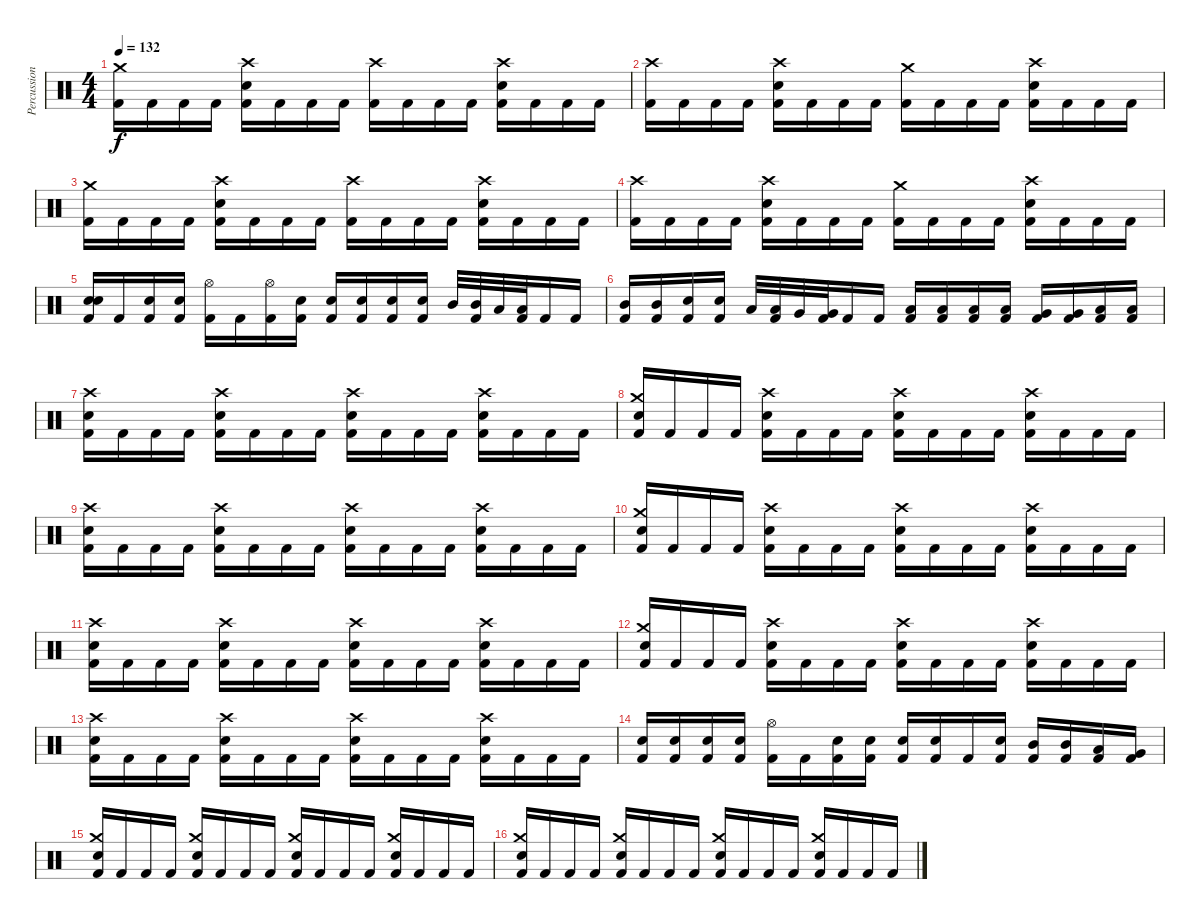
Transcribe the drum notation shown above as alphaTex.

\track ("Percussion" "Percussion") {instrument percussion}
\staff {score}
\articulation defaults
\ts (4 4)
\tempo 132
\clef neutral
\ks c
("Kick (hit) 2" "Crash medium (hit)").16{dy f} "Kick (hit) 2".16 "Kick (hit) 2".16 "Kick (hit) 2".16 ("Snare (hit) 2" "Kick (hit) 2" "Crash high (hit)").16 "Kick (hit) 2".16 "Kick (hit) 2".16 "Kick (hit) 2".16 ("Kick (hit) 2" "Crash high (hit)").16 "Kick (hit) 2".16 "Kick (hit) 2".16 "Kick (hit) 2".16 ("Snare (hit) 2" "Kick (hit) 2" "Crash high (hit)").16 "Kick (hit) 2".16 "Kick (hit) 2".16 "Kick (hit) 2".16 |
("Kick (hit) 2" "Crash high (hit)").16 "Kick (hit) 2".16 "Kick (hit) 2".16 "Kick (hit) 2".16 ("Snare (hit) 2" "Kick (hit) 2" "Crash high (hit)").16 "Kick (hit) 2".16 "Kick (hit) 2".16 "Kick (hit) 2".16 ("Kick (hit) 2" "Crash medium (hit)").16 "Kick (hit) 2".16 "Kick (hit) 2".16 "Kick (hit) 2".16 ("Snare (hit) 2" "Kick (hit) 2" "Crash high (hit)").16 "Kick (hit) 2".16 "Kick (hit) 2".16 "Kick (hit) 2".16 |
("Kick (hit) 2" "Crash medium (hit)").16 "Kick (hit) 2".16 "Kick (hit) 2".16 "Kick (hit) 2".16 ("Snare (hit) 2" "Kick (hit) 2" "Crash high (hit)").16 "Kick (hit) 2".16 "Kick (hit) 2".16 "Kick (hit) 2".16 ("Kick (hit) 2" "Crash high (hit)").16 "Kick (hit) 2".16 "Kick (hit) 2".16 "Kick (hit) 2".16 ("Snare (hit) 2" "Kick (hit) 2" "Crash high (hit)").16 "Kick (hit) 2".16 "Kick (hit) 2".16 "Kick (hit) 2".16 |
("Kick (hit) 2" "Crash high (hit)").16 "Kick (hit) 2".16 "Kick (hit) 2".16 "Kick (hit) 2".16 ("Snare (hit) 2" "Kick (hit) 2" "Crash high (hit)").16 "Kick (hit) 2".16 "Kick (hit) 2".16 "Kick (hit) 2".16 ("Kick (hit) 2" "Crash medium (hit)").16 "Kick (hit) 2".16 "Kick (hit) 2".16 "Kick (hit) 2".16 ("Snare (hit) 2" "Kick (hit) 2" "Crash high (hit)").16 "Kick (hit) 2".16 "Kick (hit) 2".16 "Kick (hit) 2".16 |
("Snare (hit) 2" "Snare (hit) 2" "Kick (hit) 2").16 "Kick (hit) 2".16 ("Snare (hit) 2" "Kick (hit) 2").16 ("Snare (hit) 2" "Kick (hit) 2").16 ("Hi-Hat (open)" "Kick (hit) 2").16 "Kick (hit) 2".16 ("Hi-Hat (open)" "Kick (hit) 2").16 ("Snare (hit) 2" "Kick (hit) 2").16 ("Snare (hit) 2" "Kick (hit) 2").16 ("Snare (hit) 2" "Kick (hit) 2").16 ("Snare (hit) 2" "Kick (hit) 2").16 ("Snare (hit) 2" "Kick (hit) 2").16 "Mid Tom (hit)".32 ("Kick (hit) 2" "Mid Tom (hit)").32 "Low Tom (hit)".32 ("Kick (hit) 2" "Low Tom (hit)").32 "Kick (hit) 2".16 "Kick (hit) 2".16 |
("Mid Tom (hit)" "Kick (hit) 2").16 ("Mid Tom (hit)" "Kick (hit) 2").16 ("Snare (hit) 2" "Kick (hit) 2").16 ("Snare (hit) 2" "Kick (hit) 2").16 "Low Tom (hit)".32 ("Low Tom (hit)" "Kick (hit) 2").32 "Very Low Tom (hit)".32 ("Very Low Tom (hit)" "Kick (hit) 2").32 "Kick (hit) 2".16 "Kick (hit) 2".16 ("Low Tom (hit)" "Kick (hit) 2").16 ("Low Tom (hit)" "Kick (hit) 2").16 ("Low Tom (hit)" "Kick (hit) 2").16 ("Low Tom (hit)" "Kick (hit) 2").16 ("Very Low Tom (hit)" "Kick (hit) 2").16 ("Very Low Tom (hit)" "Kick (hit) 2").16 ("Low Floor Tom (hit)" "Kick (hit) 2").16 ("Low Floor Tom (hit)" "Kick (hit) 2").16 |
("Snare (hit) 2" "Kick (hit) 2" "Crash high (hit)").16 "Kick (hit) 2".16 "Kick (hit) 2".16 "Kick (hit) 2".16 ("Snare (hit) 2" "Kick (hit) 2" "Crash high (hit)").16 "Kick (hit) 2".16 "Kick (hit) 2".16 "Kick (hit) 2".16 ("Snare (hit) 2" "Kick (hit) 2" "Crash high (hit)").16 "Kick (hit) 2".16 "Kick (hit) 2".16 "Kick (hit) 2".16 ("Snare (hit) 2" "Kick (hit) 2" "Crash high (hit)").16 "Kick (hit) 2".16 "Kick (hit) 2".16 "Kick (hit) 2".16 |
("Snare (hit) 2" "Kick (hit) 2" "Crash medium (hit)").16 "Kick (hit) 2".16 "Kick (hit) 2".16 "Kick (hit) 2".16 ("Snare (hit) 2" "Kick (hit) 2" "Crash high (hit)").16 "Kick (hit) 2".16 "Kick (hit) 2".16 "Kick (hit) 2".16 ("Snare (hit) 2" "Kick (hit) 2" "Crash high (hit)").16 "Kick (hit) 2".16 "Kick (hit) 2".16 "Kick (hit) 2".16 ("Snare (hit) 2" "Kick (hit) 2" "Crash high (hit)").16 "Kick (hit) 2".16 "Kick (hit) 2".16 "Kick (hit) 2".16 |
("Snare (hit) 2" "Kick (hit) 2" "Crash high (hit)").16 "Kick (hit) 2".16 "Kick (hit) 2".16 "Kick (hit) 2".16 ("Snare (hit) 2" "Kick (hit) 2" "Crash high (hit)").16 "Kick (hit) 2".16 "Kick (hit) 2".16 "Kick (hit) 2".16 ("Snare (hit) 2" "Kick (hit) 2" "Crash high (hit)").16 "Kick (hit) 2".16 "Kick (hit) 2".16 "Kick (hit) 2".16 ("Snare (hit) 2" "Kick (hit) 2" "Crash high (hit)").16 "Kick (hit) 2".16 "Kick (hit) 2".16 "Kick (hit) 2".16 |
("Snare (hit) 2" "Kick (hit) 2" "Crash medium (hit)").16 "Kick (hit) 2".16 "Kick (hit) 2".16 "Kick (hit) 2".16 ("Snare (hit) 2" "Kick (hit) 2" "Crash high (hit)").16 "Kick (hit) 2".16 "Kick (hit) 2".16 "Kick (hit) 2".16 ("Snare (hit) 2" "Kick (hit) 2" "Crash high (hit)").16 "Kick (hit) 2".16 "Kick (hit) 2".16 "Kick (hit) 2".16 ("Snare (hit) 2" "Kick (hit) 2" "Crash high (hit)").16 "Kick (hit) 2".16 "Kick (hit) 2".16 "Kick (hit) 2".16 |
("Snare (hit) 2" "Kick (hit) 2" "Crash high (hit)").16 "Kick (hit) 2".16 "Kick (hit) 2".16 "Kick (hit) 2".16 ("Snare (hit) 2" "Kick (hit) 2" "Crash high (hit)").16 "Kick (hit) 2".16 "Kick (hit) 2".16 "Kick (hit) 2".16 ("Snare (hit) 2" "Kick (hit) 2" "Crash high (hit)").16 "Kick (hit) 2".16 "Kick (hit) 2".16 "Kick (hit) 2".16 ("Snare (hit) 2" "Kick (hit) 2" "Crash high (hit)").16 "Kick (hit) 2".16 "Kick (hit) 2".16 "Kick (hit) 2".16 |
("Snare (hit) 2" "Kick (hit) 2" "Crash medium (hit)").16 "Kick (hit) 2".16 "Kick (hit) 2".16 "Kick (hit) 2".16 ("Snare (hit) 2" "Kick (hit) 2" "Crash high (hit)").16 "Kick (hit) 2".16 "Kick (hit) 2".16 "Kick (hit) 2".16 ("Snare (hit) 2" "Kick (hit) 2" "Crash high (hit)").16 "Kick (hit) 2".16 "Kick (hit) 2".16 "Kick (hit) 2".16 ("Snare (hit) 2" "Kick (hit) 2" "Crash high (hit)").16 "Kick (hit) 2".16 "Kick (hit) 2".16 "Kick (hit) 2".16 |
("Snare (hit) 2" "Kick (hit) 2" "Crash high (hit)").16 "Kick (hit) 2".16 "Kick (hit) 2".16 "Kick (hit) 2".16 ("Snare (hit) 2" "Kick (hit) 2" "Crash high (hit)").16 "Kick (hit) 2".16 "Kick (hit) 2".16 "Kick (hit) 2".16 ("Snare (hit) 2" "Kick (hit) 2" "Crash high (hit)").16 "Kick (hit) 2".16 "Kick (hit) 2".16 "Kick (hit) 2".16 ("Snare (hit) 2" "Kick (hit) 2" "Crash high (hit)").16 "Kick (hit) 2".16 "Kick (hit) 2".16 "Kick (hit) 2".16 |
("Kick (hit) 2" "Snare (hit) 2").16 ("Kick (hit) 2" "Snare (hit) 2").16 ("Kick (hit) 2" "Snare (hit) 2").16 ("Kick (hit) 2" "Snare (hit) 2").16 ("Kick (hit) 2" "Hi-Hat (open)").16 "Kick (hit) 2".16 ("Kick (hit) 2" "Snare (hit) 2").16 ("Kick (hit) 2" "Snare (hit) 2").16 ("Kick (hit) 2" "Snare (hit) 2").16 ("Kick (hit) 2" "Snare (hit) 2").16 "Kick (hit) 2".16 ("Kick (hit) 2" "Snare (hit) 2").16 ("Kick (hit) 2" "Mid Tom (hit)").16 ("Kick (hit) 2" "Mid Tom (hit)").16 ("Kick (hit) 2" "Low Tom (hit)").16 ("Kick (hit) 2" "Very Low Tom (hit)").16 |
("Snare (hit) 2" "Kick (hit) 2" "Crash medium (hit)").16 "Kick (hit) 2".16 "Kick (hit) 2".16 "Kick (hit) 2".16 ("Snare (hit) 2" "Kick (hit) 2" "Crash medium (hit)").16 "Kick (hit) 2".16 "Kick (hit) 2".16 "Kick (hit) 2".16 ("Snare (hit) 2" "Kick (hit) 2" "Crash medium (hit)").16 "Kick (hit) 2".16 "Kick (hit) 2".16 "Kick (hit) 2".16 ("Snare (hit) 2" "Kick (hit) 2" "Crash medium (hit)").16 "Kick (hit) 2".16 "Kick (hit) 2".16 "Kick (hit) 2".16 |
("Snare (hit) 2" "Kick (hit) 2" "Crash medium (hit)").16 "Kick (hit) 2".16 "Kick (hit) 2".16 "Kick (hit) 2".16 ("Snare (hit) 2" "Kick (hit) 2" "Crash medium (hit)").16 "Kick (hit) 2".16 "Kick (hit) 2".16 "Kick (hit) 2".16 ("Snare (hit) 2" "Kick (hit) 2" "Crash medium (hit)").16 "Kick (hit) 2".16 "Kick (hit) 2".16 "Kick (hit) 2".16 ("Snare (hit) 2" "Kick (hit) 2" "Crash medium (hit)").16 "Kick (hit) 2".16 "Kick (hit) 2".16 "Kick (hit) 2".16
